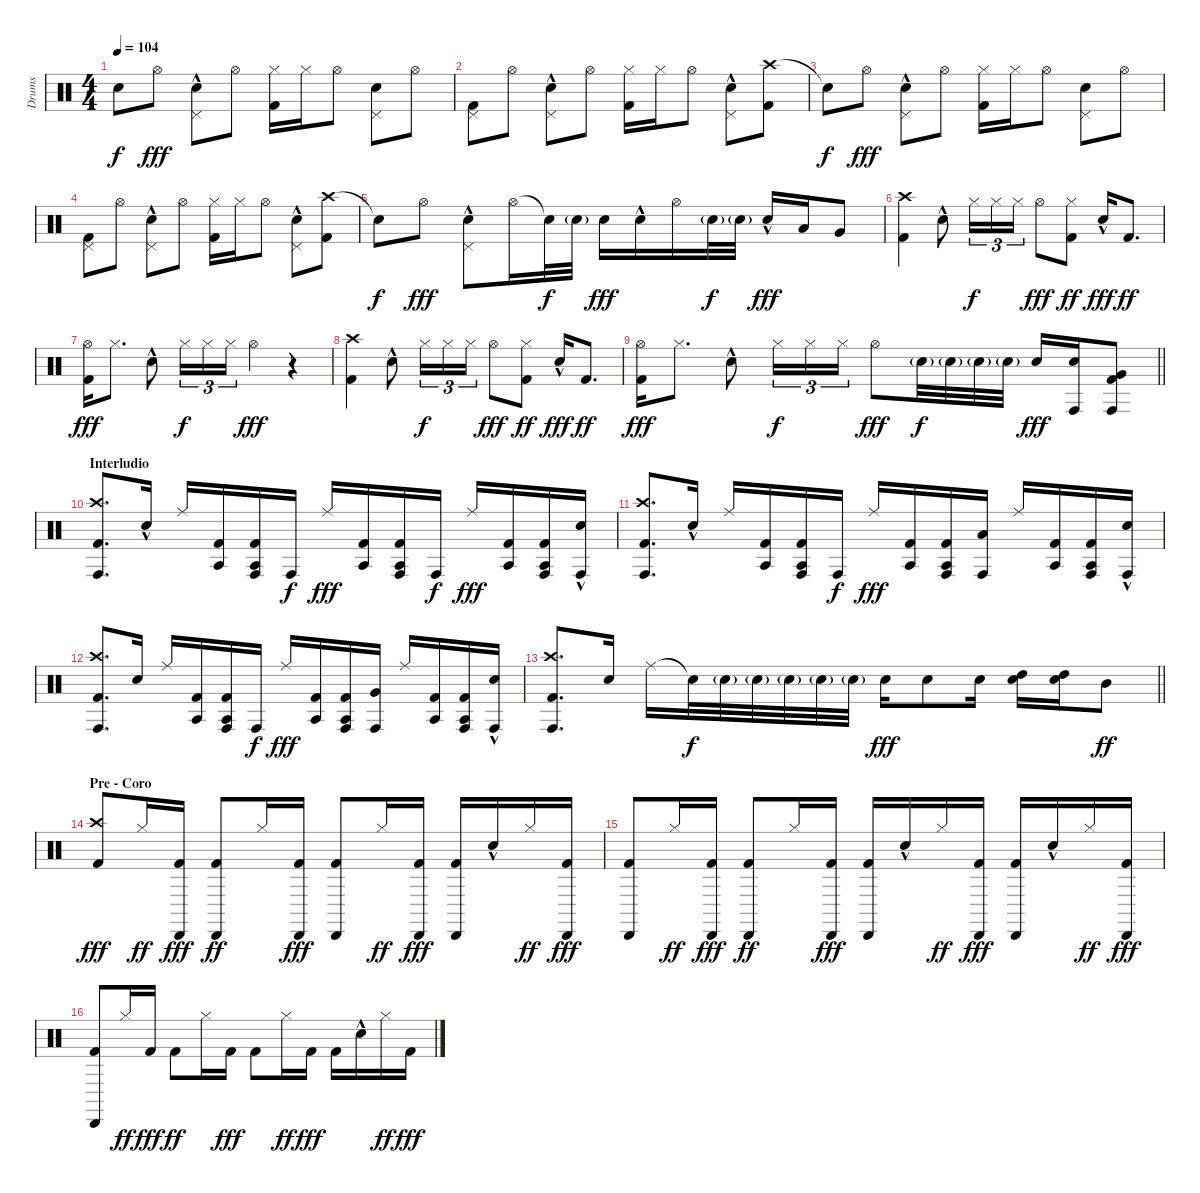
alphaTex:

\track ("Drums" "Drums") {instrument percussion}
\staff {score}
\articulation defaults
\ts (4 4)
\tempo 104
\clef neutral
\ks c "Snare (hit)"{t}.8{dy f} "Hi-Hat (open)".8{dy fff}
("Pedal Hi-Hat (hit)" "Electric Snare (hit)"{hac}).8 "Hi-Hat (open)".8 ("Hi-Hat (closed)" "Kick (hit) 2").16 "Hi-Hat (closed)".16 "Hi-Hat (open)".8 ("Pedal Hi-Hat (hit)" "Electric Snare (hit)").8 "Hi-Hat (open)".8 |
("Pedal Hi-Hat (hit)" "Kick (hit) 2").8 "Hi-Hat (open)".8 ("Pedal Hi-Hat (hit)" "Electric Snare (hit)"{hac}).8 "Hi-Hat (open)".8 ("Hi-Hat (closed)" "Kick (hit) 2").16 "Hi-Hat (closed)".16 "Hi-Hat (open)".8 ("Pedal Hi-Hat (hit)" "Electric Snare (hit)"{hac}).8 ("Crash high (hit)" "Kick (hit) 2").8 |
"Snare (hit)"{t}.8{dy f} "Hi-Hat (open)".8{dy fff} ("Pedal Hi-Hat (hit)" "Electric Snare (hit)"{hac}).8 "Hi-Hat (open)".8 ("Hi-Hat (closed)" "Kick (hit) 2").16 "Hi-Hat (closed)".16 "Hi-Hat (open)".8 ("Pedal Hi-Hat (hit)" "Electric Snare (hit)").8 "Hi-Hat (open)".8 |
("Pedal Hi-Hat (hit)" "Kick (hit) 2").8 "Hi-Hat (open)".8 ("Pedal Hi-Hat (hit)" "Electric Snare (hit)"{hac}).8 "Hi-Hat (open)".8 ("Hi-Hat (closed)" "Kick (hit) 2").16 "Hi-Hat (closed)".16 "Hi-Hat (open)".8 ("Pedal Hi-Hat (hit)" "Electric Snare (hit)"{hac}).8 ("Crash high (hit)" "Kick (hit) 2").8 |
"Snare (hit)"{t}.8{dy f} "Hi-Hat (open)".8{dy fff} ("Pedal Hi-Hat (hit)" "Electric Snare (hit)"{hac}).8 "Hi-Hat (open)".16 "Snare (hit)"{t}.32{dy f} "Electric Snare (hit)"{g}.32 "Electric Snare (hit)".16{dy fff} "Electric Snare (hit)"{hac}.16 "Hi-Hat (open)".16 "Electric Snare (hit)"{g}.32{dy f} "Electric Snare (hit)"{g}.32 "Electric Snare (hit)"{hac}.16{dy fff} "Low Tom (hit)".16 "Very Low Tom (hit)".8 |
("Crash high (hit)" "Kick (hit) 2").4 "Electric Snare (hit)"{hac}.8 "Hi-Hat (closed)".16{tu (3 2) dy f} "Hi-Hat (closed)".16{tu (3 2)} "Hi-Hat (closed)".16{tu (3 2)} "Hi-Hat (open)".8{dy fff} ("Hi-Hat (closed)" "Kick (hit) 2").8{dy ff} "Electric Snare (hit)"{hac}.16{dy fff} "Kick (hit) 2".8{d dy ff} |
("Hi-Hat (open)" "Kick (hit) 2").16{dy fff} "Hi-Hat (closed)".8{d} "Electric Snare (hit)"{hac}.8 "Hi-Hat (closed)".16{tu (3 2) dy f} "Hi-Hat (closed)".16{tu (3 2)} "Hi-Hat (closed)".16{tu (3 2)} "Hi-Hat (open)".4{dy fff} r.4 |
("Crash high (hit)" "Kick (hit) 2").4 "Electric Snare (hit)"{hac}.8 "Hi-Hat (closed)".16{tu (3 2) dy f} "Hi-Hat (closed)".16{tu (3 2)} "Hi-Hat (closed)".16{tu (3 2)} "Hi-Hat (open)".8{dy fff} ("Hi-Hat (closed)" "Kick (hit) 2").8{dy ff} "Electric Snare (hit)"{hac}.16{dy fff} "Kick (hit) 2".8{d dy ff} |
\barLineRight lightlight
("Hi-Hat (open)" "Kick (hit) 2").16{dy fff} "Hi-Hat (closed)".8{d} "Electric Snare (hit)"{hac}.8 "Hi-Hat (closed)".16{tu (3 2) dy f} "Hi-Hat (closed)".16{tu (3 2)} "Hi-Hat (closed)".16{tu (3 2)} "Hi-Hat (open)".8{dy fff} "Electric Snare (hit)"{g}.32{dy f} "Electric Snare (hit)"{g}.32 "Electric Snare (hit)"{g}.32 "Electric Snare (hit)"{g}.32 "Electric Snare (hit)".16{dy fff} ("Conga high (hit)" "Electric Snare (hit)").16 ("Conga high (hit)" "Very Low Tom (hit)" "Kick (hit) 2").8 |
\section ("" "Interludio")
("Crash high (hit)" "Conga high (hit)" "Kick (hit) 2").8{d} "Electric Snare (hit)"{hac}.16 "Ride (middle)".16 ("Agogo tow (hit)" "Kick (hit) 2").16 ("Conga high (hit)" "Agogo tow (hit)" "Kick (hit) 2").16 "Conga high (hit)".16{dy f} "Ride (middle)".16{dy fff} ("Agogo tow (hit)" "Kick (hit) 2").16 ("Conga high (hit)" "Agogo tow (hit)" "Kick (hit) 2").16 "Conga high (hit)".16{dy f} "Ride (middle)".16{dy fff} ("Agogo tow (hit)" "Kick (hit) 2").16 ("Conga high (hit)" "Agogo tow (hit)" "Kick (hit) 2").16 ("Conga high (hit)" "Electric Snare (hit)"{hac}).16 |
("Crash high (hit)" "Conga high (hit)" "Kick (hit) 2").8{d} "Electric Snare (hit)"{hac}.16 "Ride (middle)".16 ("Agogo tow (hit)" "Kick (hit) 2").16 ("Conga high (hit)" "Agogo tow (hit)" "Kick (hit) 2").16 "Conga high (hit)".16{dy f} "Ride (middle)".16{dy fff} ("Agogo tow (hit)" "Kick (hit) 2").16 ("Conga high (hit)" "Agogo tow (hit)" "Kick (hit) 2").16 ("Conga high (hit)" "Low Tom (hit)").16 "Ride (middle)".16 ("Agogo tow (hit)" "Kick (hit) 2").16 ("Conga high (hit)" "Agogo tow (hit)" "Kick (hit) 2").16 ("Conga high (hit)" "Electric Snare (hit)"{hac}).16 |
("Crash high (hit)" "Conga high (hit)" "Kick (hit) 2").8{d} "Electric Snare (hit)".16 "Ride (middle)".16 ("Agogo tow (hit)" "Kick (hit) 2").16 ("Conga high (hit)" "Agogo tow (hit)" "Kick (hit) 2").16 "Conga high (hit)".16{dy f} "Ride (middle)".16{dy fff} ("Agogo tow (hit)" "Kick (hit) 2").16 ("Conga high (hit)" "Agogo tow (hit)" "Kick (hit) 2").16 ("Conga high (hit)" "Very Low Tom (hit)").16 "Ride (middle)".16 ("Agogo tow (hit)" "Kick (hit) 2").16 ("Conga high (hit)" "Agogo tow (hit)" "Kick (hit) 2").16 ("Conga high (hit)" "Electric Snare (hit)"{hac}).16 |
\barLineRight lightlight
("Crash high (hit)" "Conga high (hit)" "Kick (hit) 2").8{d} "Electric Snare (hit)".16 "Ride (middle)".16 "Snare (hit)"{t}.32{dy f} "Electric Snare (hit)"{g}.32 "Electric Snare (hit)"{g}.32 "Electric Snare (hit)"{g}.32 "Electric Snare (hit)"{g}.32 "Electric Snare (hit)"{g}.32 "Electric Snare (hit)".16{dy fff} "Electric Snare (hit)".8 "Electric Snare (hit)".16 ("High Tom (hit)" "Electric Snare (hit)").16 ("High Tom (hit)" "Electric Snare (hit)").16 "Mid Tom (hit)".8{dy ff} |
\section ("" "Pre - Coro")
("Crash high (hit)" "Kick (hit) 2").8{dy fff} "Hi-Hat (closed)".16{dy ff} ("Cabasa (hit)" "Kick (hit) 2").16{dy fff} ("Cabasa (hit)" "Kick (hit) 2").8{dy ff} "Hi-Hat (closed)".16 ("Cabasa (hit)" "Kick (hit) 2").16{dy fff} ("Cabasa (hit)" "Kick (hit) 2").8 "Hi-Hat (closed)".16{dy ff} ("Cabasa (hit)" "Kick (hit) 2").16{dy fff} ("Cabasa (hit)" "Kick (hit) 2").16 "Electric Snare (hit)"{hac}.16 "Hi-Hat (closed)".16{dy ff} ("Cabasa (hit)" "Kick (hit) 2").16{dy fff} |
("Cabasa (hit)" "Kick (hit) 2").8 "Hi-Hat (closed)".16{dy ff} ("Cabasa (hit)" "Kick (hit) 2").16{dy fff} ("Cabasa (hit)" "Kick (hit) 2").8{dy ff} "Hi-Hat (closed)".16 ("Cabasa (hit)" "Kick (hit) 2").16{dy fff} ("Cabasa (hit)" "Kick (hit) 2").16 "Electric Snare (hit)"{hac}.16 "Hi-Hat (closed)".16{dy ff} ("Cabasa (hit)" "Kick (hit) 2").16{dy fff} ("Cabasa (hit)" "Kick (hit) 2").16 "Electric Snare (hit)"{hac}.16 "Hi-Hat (closed)".16{dy ff} ("Cabasa (hit)" "Kick (hit) 2").16{dy fff} |
("Cabasa (hit)" "Kick (hit) 2").8 "Hi-Hat (closed)".16{dy ff} "Kick (hit) 2".16{dy fff} "Kick (hit) 2".8{dy ff} "Hi-Hat (closed)".16 "Kick (hit) 2".16{dy fff} "Kick (hit) 2".8 "Hi-Hat (closed)".16{dy ff} "Kick (hit) 2".16{dy fff} "Kick (hit) 2".16 "Electric Snare (hit)"{hac}.16 "Hi-Hat (closed)".16{dy ff} "Kick (hit) 2".16{dy fff}
